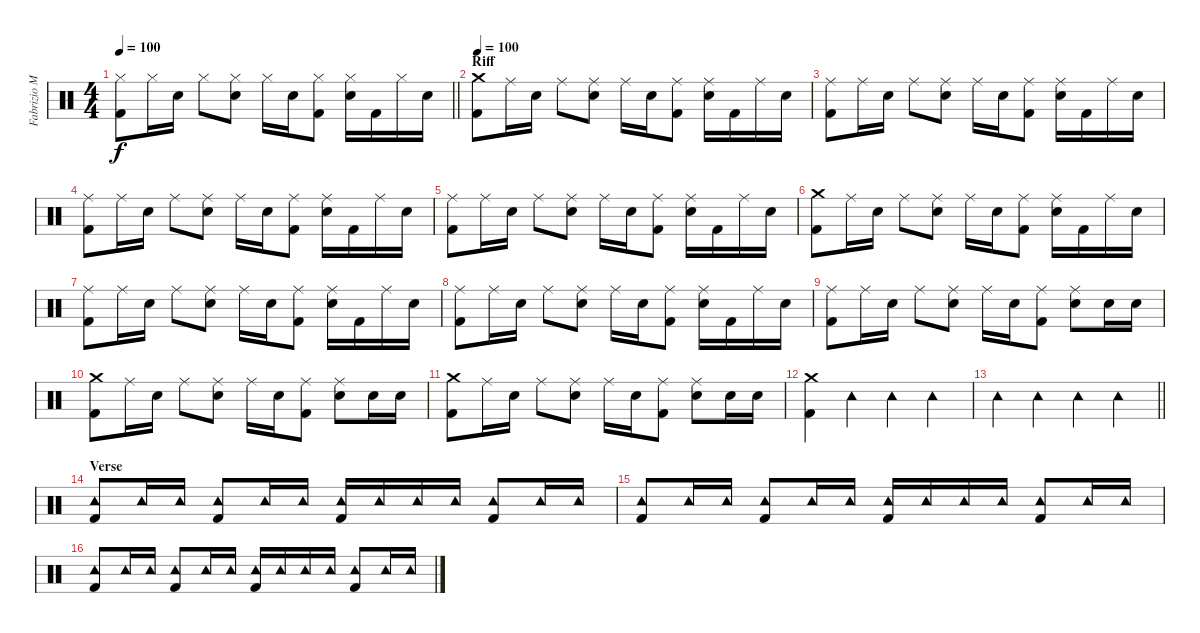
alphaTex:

\track ("Fabrizio Moretti" "Fabrizio M") {instrument percussion}
\staff {score}
\articulation defaults
\ts (4 4)
\tempo 100
\clef neutral
\barLineRight lightlight
\ks c
("Hi-Hat (closed)" "Kick (hit) 2").8{dy f} "Hi-Hat (closed)".16 "Snare (hit) 2".16 "Hi-Hat (closed)".8 ("Hi-Hat (closed)" "Snare (hit) 2").8 "Hi-Hat (closed)".16 "Snare (hit) 2".16 ("Hi-Hat (closed)" "Kick (hit) 2").8 ("Hi-Hat (closed)" "Snare (hit) 2").16 "Kick (hit) 2".16 "Hi-Hat (closed)".16 "Snare (hit) 2".16 |
\section ("" "Riff")
\tempo 100
("Crash medium (hit)" "Kick (hit) 2").8 "Ride (middle)".16 "Snare (hit) 2".16 "Ride (middle)".8 ("Ride (middle)" "Snare (hit) 2").8 "Ride (middle)".16 "Snare (hit) 2".16 ("Ride (middle)" "Kick (hit) 2").8 ("Ride (middle)" "Snare (hit) 2").16 "Kick (hit) 2".16 "Ride (middle)".16 "Snare (hit) 2".16 |
("Ride (middle)" "Kick (hit) 2").8 "Ride (middle)".16 "Snare (hit) 2".16 "Ride (middle)".8 ("Ride (middle)" "Snare (hit) 2").8 "Ride (middle)".16 "Snare (hit) 2".16 ("Ride (middle)" "Kick (hit) 2").8 ("Ride (middle)" "Snare (hit) 2").16 "Kick (hit) 2".16 "Ride (middle)".16 "Snare (hit) 2".16 |
("Ride (middle)" "Kick (hit) 2").8 "Ride (middle)".16 "Snare (hit) 2".16 "Ride (middle)".8 ("Ride (middle)" "Snare (hit) 2").8 "Ride (middle)".16 "Snare (hit) 2".16 ("Ride (middle)" "Kick (hit) 2").8 ("Ride (middle)" "Snare (hit) 2").16 "Kick (hit) 2".16 "Ride (middle)".16 "Snare (hit) 2".16 |
("Ride (middle)" "Kick (hit) 2").8 "Ride (middle)".16 "Snare (hit) 2".16 "Ride (middle)".8 ("Ride (middle)" "Snare (hit) 2").8 "Ride (middle)".16 "Snare (hit) 2".16 ("Ride (middle)" "Kick (hit) 2").8 ("Ride (middle)" "Snare (hit) 2").16 "Kick (hit) 2".16 "Ride (middle)".16 "Snare (hit) 2".16 |
("Crash medium (hit)" "Kick (hit) 2").8 "Ride (middle)".16 "Snare (hit) 2".16 "Ride (middle)".8 ("Ride (middle)" "Snare (hit) 2").8 "Ride (middle)".16 "Snare (hit) 2".16 ("Ride (middle)" "Kick (hit) 2").8 ("Ride (middle)" "Snare (hit) 2").16 "Kick (hit) 2".16 "Ride (middle)".16 "Snare (hit) 2".16 |
("Ride (middle)" "Kick (hit) 2").8 "Ride (middle)".16 "Snare (hit) 2".16 "Ride (middle)".8 ("Ride (middle)" "Snare (hit) 2").8 "Ride (middle)".16 "Snare (hit) 2".16 ("Ride (middle)" "Kick (hit) 2").8 ("Ride (middle)" "Snare (hit) 2").16 "Kick (hit) 2".16 "Ride (middle)".16 "Snare (hit) 2".16 |
("Ride (middle)" "Kick (hit) 2").8 "Ride (middle)".16 "Snare (hit) 2".16 "Ride (middle)".8 ("Ride (middle)" "Snare (hit) 2").8 "Ride (middle)".16 "Snare (hit) 2".16 ("Ride (middle)" "Kick (hit) 2").8 ("Ride (middle)" "Snare (hit) 2").16 "Kick (hit) 2".16 "Ride (middle)".16 "Snare (hit) 2".16 |
("Ride (middle)" "Kick (hit) 2").8 "Ride (middle)".16 "Snare (hit) 2".16 "Ride (middle)".8 ("Ride (middle)" "Snare (hit) 2").8 "Ride (middle)".16 "Snare (hit) 2".16 ("Ride (middle)" "Kick (hit) 2").8 ("Ride (middle)" "Snare (hit) 2").8 "Snare (hit) 2".16 "Snare (hit) 2".16 |
("Crash medium (hit)" "Kick (hit) 2").8 "Ride (middle)".16 "Snare (hit) 2".16 "Ride (middle)".8 ("Ride (middle)" "Snare (hit) 2").8 "Ride (middle)".16 "Snare (hit) 2".16 ("Ride (middle)" "Kick (hit) 2").8 ("Ride (middle)" "Snare (hit) 2").8 "Snare (hit) 2".16 "Snare (hit) 2".16 |
("Crash medium (hit)" "Kick (hit) 2").8 "Ride (middle)".16 "Snare (hit) 2".16 "Ride (middle)".8 ("Ride (middle)" "Snare (hit) 2").8 "Ride (middle)".16 "Snare (hit) 2".16 ("Ride (middle)" "Kick (hit) 2").8 ("Ride (middle)" "Snare (hit) 2").8 "Snare (hit) 2".16 "Snare (hit) 2".16 |
("Crash medium (hit)" "Kick (hit) 2").4 "Tambourine (hit)".4 "Tambourine (hit)".4 "Tambourine (hit)".4 |
\barLineRight lightlight "Tambourine (hit)".4 "Tambourine (hit)".4 "Tambourine (hit)".4 "Tambourine (hit)".4
|
\section ("" "Verse")
("Tambourine (hit)" "Kick (hit) 2").8 "Tambourine (hit)".16 "Tambourine (hit)".16 ("Tambourine (hit)" "Kick (hit) 2").8 "Tambourine (hit)".16 "Tambourine (hit)".16 ("Tambourine (hit)" "Kick (hit) 2").16 "Tambourine (hit)".16 "Tambourine (hit)".16 "Tambourine (hit)".16 ("Tambourine (hit)" "Kick (hit) 2").8 "Tambourine (hit)".16 "Tambourine (hit)".16 |
("Tambourine (hit)" "Kick (hit) 2").8 "Tambourine (hit)".16 "Tambourine (hit)".16 ("Tambourine (hit)" "Kick (hit) 2").8 "Tambourine (hit)".16 "Tambourine (hit)".16 ("Tambourine (hit)" "Kick (hit) 2").16 "Tambourine (hit)".16 "Tambourine (hit)".16 "Tambourine (hit)".16 ("Tambourine (hit)" "Kick (hit) 2").8 "Tambourine (hit)".16 "Tambourine (hit)".16 |
("Tambourine (hit)" "Kick (hit) 2").8 "Tambourine (hit)".16 "Tambourine (hit)".16 ("Tambourine (hit)" "Kick (hit) 2").8 "Tambourine (hit)".16 "Tambourine (hit)".16 ("Tambourine (hit)" "Kick (hit) 2").16 "Tambourine (hit)".16 "Tambourine (hit)".16 "Tambourine (hit)".16 ("Tambourine (hit)" "Kick (hit) 2").8 "Tambourine (hit)".16 "Tambourine (hit)".16
